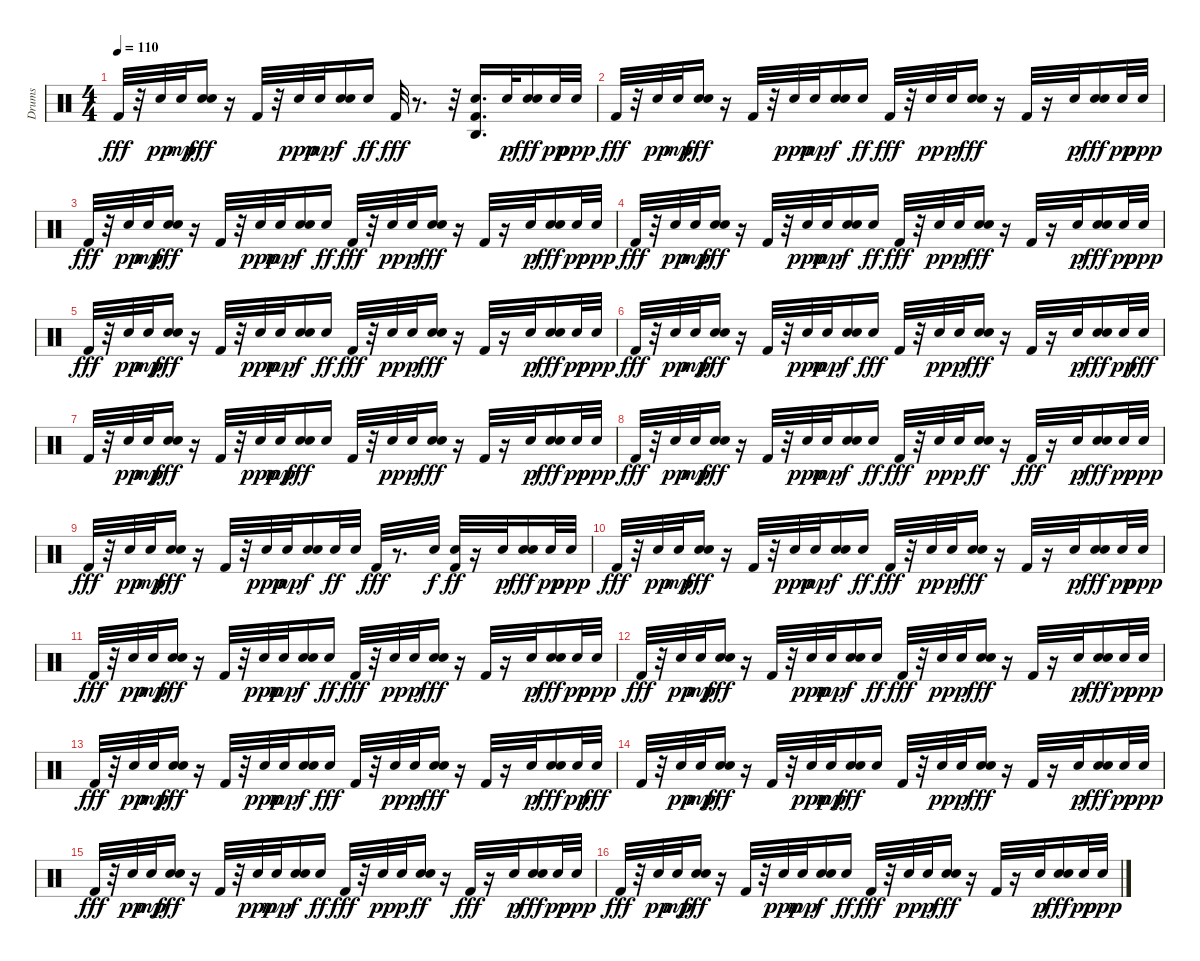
\track ("Drums" "Drums") {instrument percussion}
\staff {score}
\articulation defaults
\ts (4 4)
\tempo 110
\clef neutral
\ks c "Kick (hit) 2".32{dy fff}
r.32 "Electric Snare (hit)".32{dy pp} "Electric Snare (hit)".32{dy mp} ("Snare (hit) 2" "Electric Snare (hit)").16{dy fff} r.16 "Kick (hit) 2".32 r.32 "Electric Snare (hit)".32{dy ppp} "Electric Snare (hit)".32{dy mp} ("Snare (hit) 2" "Electric Snare (hit)").16{dy f} "Electric Snare (hit)".16{dy ff} "Kick (hit) 2".32{dy fff} r.8{d} r.32 ("Agogo high (hit)" "Kick (hit) 2" "Snare (hit) 2").16{d} "Electric Snare (hit)".32{dy p} ("Snare (hit) 2" "Electric Snare (hit)").16{dy fff} "Electric Snare (hit)".32{dy pp} "Electric Snare (hit)".32{dy ppp} |
"Kick (hit) 2".32{dy fff} r.32 "Electric Snare (hit)".32{dy pp} "Electric Snare (hit)".32{dy mp} ("Snare (hit) 2" "Electric Snare (hit)").16{dy fff} r.16 "Kick (hit) 2".32 r.32 "Electric Snare (hit)".32{dy ppp} "Electric Snare (hit)".32{dy mp} ("Snare (hit) 2" "Electric Snare (hit)").16{dy f} "Electric Snare (hit)".16{dy ff} "Kick (hit) 2".32{dy fff} r.32 "Electric Snare (hit)".32{dy pp} "Electric Snare (hit)".32{dy p} ("Snare (hit) 2" "Electric Snare (hit)").16{dy fff} r.16 "Kick (hit) 2".32 r.16 "Electric Snare (hit)".32{dy p} ("Snare (hit) 2" "Electric Snare (hit)").16{dy fff} "Electric Snare (hit)".32{dy pp} "Electric Snare (hit)".32{dy ppp} |
"Kick (hit) 2".32{dy fff} r.32 "Electric Snare (hit)".32{dy pp} "Electric Snare (hit)".32{dy mp} ("Snare (hit) 2" "Electric Snare (hit)").16{dy fff} r.16 "Kick (hit) 2".32 r.32 "Electric Snare (hit)".32{dy ppp} "Electric Snare (hit)".32{dy mp} ("Snare (hit) 2" "Electric Snare (hit)").16{dy f} "Electric Snare (hit)".16{dy ff} "Kick (hit) 2".32{dy fff} r.32 "Electric Snare (hit)".32{dy pp} "Electric Snare (hit)".32{dy p} ("Snare (hit) 2" "Electric Snare (hit)").16{dy fff} r.16 "Kick (hit) 2".32 r.16 "Electric Snare (hit)".32{dy p} ("Snare (hit) 2" "Electric Snare (hit)").16{dy fff} "Electric Snare (hit)".32{dy pp} "Electric Snare (hit)".32{dy ppp} |
"Kick (hit) 2".32{dy fff} r.32 "Electric Snare (hit)".32{dy pp} "Electric Snare (hit)".32{dy mp} ("Snare (hit) 2" "Electric Snare (hit)").16{dy fff} r.16 "Kick (hit) 2".32 r.32 "Electric Snare (hit)".32{dy ppp} "Electric Snare (hit)".32{dy mp} ("Snare (hit) 2" "Electric Snare (hit)").16{dy f} "Electric Snare (hit)".16{dy ff} "Kick (hit) 2".32{dy fff} r.32 "Electric Snare (hit)".32{dy pp} "Electric Snare (hit)".32{dy p} ("Snare (hit) 2" "Electric Snare (hit)").16{dy fff} r.16 "Kick (hit) 2".32 r.16 "Electric Snare (hit)".32{dy p} ("Snare (hit) 2" "Electric Snare (hit)").16{dy fff} "Electric Snare (hit)".32{dy pp} "Electric Snare (hit)".32{dy ppp} |
"Kick (hit) 2".32{dy fff} r.32 "Electric Snare (hit)".32{dy pp} "Electric Snare (hit)".32{dy mp} ("Snare (hit) 2" "Electric Snare (hit)").16{dy fff} r.16 "Kick (hit) 2".32 r.32 "Electric Snare (hit)".32{dy ppp} "Electric Snare (hit)".32{dy mp} ("Snare (hit) 2" "Electric Snare (hit)").16{dy f} "Electric Snare (hit)".16{dy ff} "Kick (hit) 2".32{dy fff} r.32 "Electric Snare (hit)".32{dy pp} "Electric Snare (hit)".32{dy p} ("Snare (hit) 2" "Electric Snare (hit)").16{dy fff} r.16 "Kick (hit) 2".32 r.16 "Electric Snare (hit)".32{dy p} ("Snare (hit) 2" "Electric Snare (hit)").16{dy fff} "Electric Snare (hit)".32{dy pp} "Electric Snare (hit)".32{dy ppp} |
"Kick (hit) 2".32{dy fff} r.32 "Electric Snare (hit)".32{dy pp} "Electric Snare (hit)".32{dy mp} ("Snare (hit) 2" "Electric Snare (hit)").16{dy fff} r.16 "Kick (hit) 2".32 r.32 "Electric Snare (hit)".32{dy ppp} "Electric Snare (hit)".32{dy mp} ("Snare (hit) 2" "Electric Snare (hit)").16{dy f} "Electric Snare (hit)".16{dy fff} "Kick (hit) 2".32 r.32 "Electric Snare (hit)".32{dy pp} "Electric Snare (hit)".32{dy p} ("Snare (hit) 2" "Electric Snare (hit)").16{dy fff} r.16 "Kick (hit) 2".32 r.16 "Electric Snare (hit)".32{dy p} ("Snare (hit) 2" "Electric Snare (hit)").16{dy fff} "Electric Snare (hit)".32{dy pp} "Electric Snare (hit)".32{dy fff} |
"Kick (hit) 2".32 r.32 "Electric Snare (hit)".32{dy pp} "Electric Snare (hit)".32{dy mp} ("Snare (hit) 2" "Electric Snare (hit)").16{dy fff} r.16 "Kick (hit) 2".32 r.32 "Electric Snare (hit)".32{dy ppp} "Electric Snare (hit)".32{dy mp} ("Snare (hit) 2" "Electric Snare (hit)").16{dy fff} "Electric Snare (hit)".16 "Kick (hit) 2".32 r.32 "Electric Snare (hit)".32{dy pp} "Electric Snare (hit)".32{dy p} ("Snare (hit) 2" "Electric Snare (hit)").16{dy fff} r.16 "Kick (hit) 2".32 r.16 "Electric Snare (hit)".32{dy p} ("Snare (hit) 2" "Electric Snare (hit)").16{dy fff} "Electric Snare (hit)".32{dy pp} "Electric Snare (hit)".32{dy ppp} |
"Kick (hit) 2".32{dy fff} r.32 "Electric Snare (hit)".32{dy pp} "Electric Snare (hit)".32{dy mp} ("Snare (hit) 2" "Electric Snare (hit)").16{dy fff} r.16 "Kick (hit) 2".32 r.32 "Electric Snare (hit)".32{dy ppp} "Electric Snare (hit)".32{dy mp} ("Snare (hit) 2" "Electric Snare (hit)").16{dy f} "Electric Snare (hit)".16{dy ff} "Kick (hit) 2".32{dy fff} r.32 "Electric Snare (hit)".32{dy pp} "Electric Snare (hit)".32{dy p} ("Snare (hit) 2" "Electric Snare (hit)").16{dy ff} r.16 "Kick (hit) 2".32{dy fff} r.16 "Electric Snare (hit)".32{dy p} ("Snare (hit) 2" "Electric Snare (hit)").16{dy fff} "Electric Snare (hit)".32{dy pp} "Electric Snare (hit)".32{dy ppp} |
"Kick (hit) 2".32{dy fff} r.32 "Electric Snare (hit)".32{dy pp} "Electric Snare (hit)".32{dy mp} ("Snare (hit) 2" "Electric Snare (hit)").16{dy fff} r.16 "Kick (hit) 2".32 r.32 "Electric Snare (hit)".32{dy ppp} "Electric Snare (hit)".32{dy mp} ("Snare (hit) 2" "Electric Snare (hit)").16{dy f} "Electric Snare (hit)".32{dy ff} "Snare (hit) 2".32 "Kick (hit) 2".32{dy fff} r.8{d} "Snare (hit) 2".32{dy f} ("Kick (hit) 2" "Snare (hit) 2").32{dy ff} r.16 "Electric Snare (hit)".32{dy p} ("Snare (hit) 2" "Electric Snare (hit)").16{dy fff} "Electric Snare (hit)".32{dy pp} "Electric Snare (hit)".32{dy ppp} |
"Kick (hit) 2".32{dy fff} r.32 "Electric Snare (hit)".32{dy pp} "Electric Snare (hit)".32{dy mp} ("Snare (hit) 2" "Electric Snare (hit)").16{dy fff} r.16 "Kick (hit) 2".32 r.32 "Electric Snare (hit)".32{dy ppp} "Electric Snare (hit)".32{dy mp} ("Snare (hit) 2" "Electric Snare (hit)").16{dy f} "Electric Snare (hit)".16{dy ff} "Kick (hit) 2".32{dy fff} r.32 "Electric Snare (hit)".32{dy pp} "Electric Snare (hit)".32{dy p} ("Snare (hit) 2" "Electric Snare (hit)").16{dy fff} r.16 "Kick (hit) 2".32 r.16 "Electric Snare (hit)".32{dy p} ("Snare (hit) 2" "Electric Snare (hit)").16{dy fff} "Electric Snare (hit)".32{dy pp} "Electric Snare (hit)".32{dy ppp} |
"Kick (hit) 2".32{dy fff} r.32 "Electric Snare (hit)".32{dy pp} "Electric Snare (hit)".32{dy mp} ("Snare (hit) 2" "Electric Snare (hit)").16{dy fff} r.16 "Kick (hit) 2".32 r.32 "Electric Snare (hit)".32{dy ppp} "Electric Snare (hit)".32{dy mp} ("Snare (hit) 2" "Electric Snare (hit)").16{dy f} "Electric Snare (hit)".16{dy ff} "Kick (hit) 2".32{dy fff} r.32 "Electric Snare (hit)".32{dy pp} "Electric Snare (hit)".32{dy p} ("Snare (hit) 2" "Electric Snare (hit)").16{dy fff} r.16 "Kick (hit) 2".32 r.16 "Electric Snare (hit)".32{dy p} ("Snare (hit) 2" "Electric Snare (hit)").16{dy fff} "Electric Snare (hit)".32{dy pp} "Electric Snare (hit)".32{dy ppp} |
"Kick (hit) 2".32{dy fff} r.32 "Electric Snare (hit)".32{dy pp} "Electric Snare (hit)".32{dy mp} ("Snare (hit) 2" "Electric Snare (hit)").16{dy fff} r.16 "Kick (hit) 2".32 r.32 "Electric Snare (hit)".32{dy ppp} "Electric Snare (hit)".32{dy mp} ("Snare (hit) 2" "Electric Snare (hit)").16{dy f} "Electric Snare (hit)".16{dy ff} "Kick (hit) 2".32{dy fff} r.32 "Electric Snare (hit)".32{dy pp} "Electric Snare (hit)".32{dy p} ("Snare (hit) 2" "Electric Snare (hit)").16{dy fff} r.16 "Kick (hit) 2".32 r.16 "Electric Snare (hit)".32{dy p} ("Snare (hit) 2" "Electric Snare (hit)").16{dy fff} "Electric Snare (hit)".32{dy pp} "Electric Snare (hit)".32{dy ppp} |
"Kick (hit) 2".32{dy fff} r.32 "Electric Snare (hit)".32{dy pp} "Electric Snare (hit)".32{dy mp} ("Snare (hit) 2" "Electric Snare (hit)").16{dy fff} r.16 "Kick (hit) 2".32 r.32 "Electric Snare (hit)".32{dy ppp} "Electric Snare (hit)".32{dy mp} ("Snare (hit) 2" "Electric Snare (hit)").16{dy f} "Electric Snare (hit)".16{dy fff} "Kick (hit) 2".32 r.32 "Electric Snare (hit)".32{dy pp} "Electric Snare (hit)".32{dy p} ("Snare (hit) 2" "Electric Snare (hit)").16{dy fff} r.16 "Kick (hit) 2".32 r.16 "Electric Snare (hit)".32{dy p} ("Snare (hit) 2" "Electric Snare (hit)").16{dy fff} "Electric Snare (hit)".32{dy pp} "Electric Snare (hit)".32{dy fff} |
"Kick (hit) 2".32 r.32 "Electric Snare (hit)".32{dy pp} "Electric Snare (hit)".32{dy mp} ("Snare (hit) 2" "Electric Snare (hit)").16{dy fff} r.16 "Kick (hit) 2".32 r.32 "Electric Snare (hit)".32{dy ppp} "Electric Snare (hit)".32{dy mp} ("Snare (hit) 2" "Electric Snare (hit)").16{dy fff} "Electric Snare (hit)".16 "Kick (hit) 2".32 r.32 "Electric Snare (hit)".32{dy pp} "Electric Snare (hit)".32{dy p} ("Snare (hit) 2" "Electric Snare (hit)").16{dy fff} r.16 "Kick (hit) 2".32 r.16 "Electric Snare (hit)".32{dy p} ("Snare (hit) 2" "Electric Snare (hit)").16{dy fff} "Electric Snare (hit)".32{dy pp} "Electric Snare (hit)".32{dy ppp} |
"Kick (hit) 2".32{dy fff} r.32 "Electric Snare (hit)".32{dy pp} "Electric Snare (hit)".32{dy mp} ("Snare (hit) 2" "Electric Snare (hit)").16{dy fff} r.16 "Kick (hit) 2".32 r.32 "Electric Snare (hit)".32{dy ppp} "Electric Snare (hit)".32{dy mp} ("Snare (hit) 2" "Electric Snare (hit)").16{dy f} "Electric Snare (hit)".16{dy ff} "Kick (hit) 2".32{dy fff} r.32 "Electric Snare (hit)".32{dy pp} "Electric Snare (hit)".32{dy p} ("Snare (hit) 2" "Electric Snare (hit)").16{dy ff} r.16 "Kick (hit) 2".32{dy fff} r.16 "Electric Snare (hit)".32{dy p} ("Snare (hit) 2" "Electric Snare (hit)").16{dy fff} "Electric Snare (hit)".32{dy pp} "Electric Snare (hit)".32{dy ppp} |
"Kick (hit) 2".32{dy fff} r.32 "Electric Snare (hit)".32{dy pp} "Electric Snare (hit)".32{dy mp} ("Snare (hit) 2" "Electric Snare (hit)").16{dy fff} r.16 "Kick (hit) 2".32 r.32 "Electric Snare (hit)".32{dy ppp} "Electric Snare (hit)".32{dy mp} ("Snare (hit) 2" "Electric Snare (hit)").16{dy f} "Electric Snare (hit)".16{dy ff} "Kick (hit) 2".32{dy fff} r.32 "Electric Snare (hit)".32{dy pp} "Electric Snare (hit)".32{dy p} ("Snare (hit) 2" "Electric Snare (hit)").16{dy fff} r.16 "Kick (hit) 2".32 r.16 "Electric Snare (hit)".32{dy p} ("Snare (hit) 2" "Electric Snare (hit)").16{dy fff} "Electric Snare (hit)".32{dy pp} "Electric Snare (hit)".32{dy ppp}
